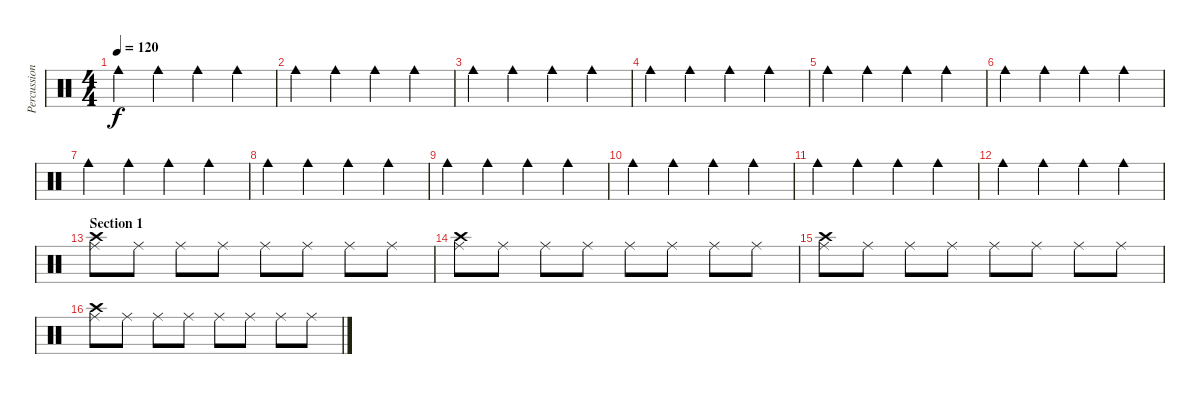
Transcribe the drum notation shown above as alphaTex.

\track ("Percussions" "Percussion") {instrument percussion}
\staff {score}
\articulation defaults
\ts (4 4)
\tempo 120
\clef neutral
\ks c "Cowbell medium (hit)".4{dy f} "Cowbell medium (hit)".4 "Cowbell medium (hit)".4 "Cowbell medium (hit)".4
|
"Cowbell medium (hit)".4 "Cowbell medium (hit)".4 "Cowbell medium (hit)".4 "Cowbell medium (hit)".4 |
"Cowbell medium (hit)".4 "Cowbell medium (hit)".4 "Cowbell medium (hit)".4 "Cowbell medium (hit)".4 |
"Cowbell medium (hit)".4 "Cowbell medium (hit)".4 "Cowbell medium (hit)".4 "Cowbell medium (hit)".4 |
"Cowbell medium (hit)".4 "Cowbell medium (hit)".4 "Cowbell medium (hit)".4 "Cowbell medium (hit)".4 |
"Cowbell medium (hit)".4 "Cowbell medium (hit)".4 "Cowbell medium (hit)".4 "Cowbell medium (hit)".4 |
"Cowbell medium (hit)".4 "Cowbell medium (hit)".4 "Cowbell medium (hit)".4 "Cowbell medium (hit)".4 |
"Cowbell medium (hit)".4 "Cowbell medium (hit)".4 "Cowbell medium (hit)".4 "Cowbell medium (hit)".4 |
"Cowbell medium (hit)".4 "Cowbell medium (hit)".4 "Cowbell medium (hit)".4 "Cowbell medium (hit)".4 |
"Cowbell medium (hit)".4 "Cowbell medium (hit)".4 "Cowbell medium (hit)".4 "Cowbell medium (hit)".4 |
"Cowbell medium (hit)".4 "Cowbell medium (hit)".4 "Cowbell medium (hit)".4 "Cowbell medium (hit)".4 |
"Cowbell medium (hit)".4 "Cowbell medium (hit)".4 "Cowbell medium (hit)".4 "Cowbell medium (hit)".4 |
\section ("" "Section 1")
("Ride (middle)" "Crash high (hit)").8 "Ride (middle)".8 "Ride (middle)".8 "Ride (middle)".8 "Ride (middle)".8 "Ride (middle)".8 "Ride (middle)".8 "Ride (middle)".8 |
("Ride (middle)" "Crash high (hit)").8 "Ride (middle)".8 "Ride (middle)".8 "Ride (middle)".8 "Ride (middle)".8 "Ride (middle)".8 "Ride (middle)".8 "Ride (middle)".8 |
("Ride (middle)" "Crash high (hit)").8 "Ride (middle)".8 "Ride (middle)".8 "Ride (middle)".8 "Ride (middle)".8 "Ride (middle)".8 "Ride (middle)".8 "Ride (middle)".8 |
("Ride (middle)" "Crash high (hit)").8 "Ride (middle)".8 "Ride (middle)".8 "Ride (middle)".8 "Ride (middle)".8 "Ride (middle)".8 "Ride (middle)".8 "Ride (middle)".8
